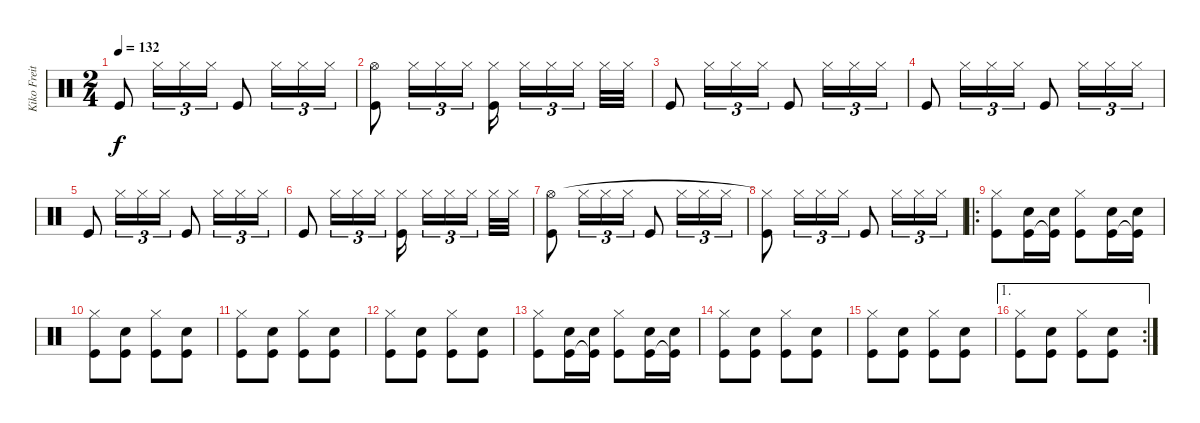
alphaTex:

\track ("Kiko Freitas" "Kiko Freit") {instrument percussion}
\staff {score}
\articulation defaults
\ts (2 4)
\tempo 132
\clef neutral
\ks c "Kick (hit)".8{dy f} "Hi-Hat (closed)".16{tu (3 2)} "Hi-Hat (closed)".16{tu (3 2)} "Hi-Hat (closed)".16{tu (3 2)} "Kick (hit)".8 "Hi-Hat (closed)".16{tu (3 2)} "Hi-Hat (closed)".16{tu (3 2)} "Hi-Hat (closed)".16{tu (3 2)}
|
("Kick (hit)" "Hi-Hat (open)").8 "Hi-Hat (closed)".16{tu (3 2)} "Hi-Hat (closed)".16{tu (3 2)} "Hi-Hat (closed)".16{tu (3 2)} ("Kick (hit)" "Hi-Hat (closed)").16 "Hi-Hat (closed)".16{tu (3 2)} "Hi-Hat (closed)".16{tu (3 2)} "Hi-Hat (closed)".16{tu (3 2)} "Hi-Hat (closed)".32 "Hi-Hat (closed)".32 |
"Kick (hit)".8 "Hi-Hat (closed)".16{tu (3 2)} "Hi-Hat (closed)".16{tu (3 2)} "Hi-Hat (closed)".16{tu (3 2)} "Kick (hit)".8 "Hi-Hat (closed)".16{tu (3 2)} "Hi-Hat (closed)".16{tu (3 2)} "Hi-Hat (closed)".16{tu (3 2)} |
"Kick (hit)".8 "Hi-Hat (closed)".16{tu (3 2)} "Hi-Hat (closed)".16{tu (3 2)} "Hi-Hat (closed)".16{tu (3 2)} "Kick (hit)".8 "Hi-Hat (closed)".16{tu (3 2)} "Hi-Hat (closed)".16{tu (3 2)} "Hi-Hat (closed)".16{tu (3 2)} |
"Kick (hit)".8 "Hi-Hat (closed)".16{tu (3 2)} "Hi-Hat (closed)".16{tu (3 2)} "Hi-Hat (closed)".16{tu (3 2)} "Kick (hit)".8 "Hi-Hat (closed)".16{tu (3 2)} "Hi-Hat (closed)".16{tu (3 2)} "Hi-Hat (closed)".16{tu (3 2)} |
"Kick (hit)".8 "Hi-Hat (closed)".16{tu (3 2)} "Hi-Hat (closed)".16{tu (3 2)} "Hi-Hat (closed)".16{tu (3 2)} ("Kick (hit)" "Hi-Hat (closed)").16 "Hi-Hat (closed)".16{tu (3 2)} "Hi-Hat (closed)".16{tu (3 2)} "Hi-Hat (closed)".16{tu (3 2)} "Hi-Hat (closed)".32 "Hi-Hat (closed)".32 |
("Kick (hit)" "Hi-Hat (open)").8 "Hi-Hat (closed)".16{tu (3 2)} "Hi-Hat (closed)".16{tu (3 2)} "Hi-Hat (closed)".16{tu (3 2)} "Kick (hit)".8 "Hi-Hat (closed)".16{tu (3 2)} "Hi-Hat (closed)".16{tu (3 2)} "Hi-Hat (closed)".16{tu (3 2)} |
("Kick (hit)" "Hi-Hat (closed)"{t}).8 "Hi-Hat (closed)".16{tu (3 2)} "Hi-Hat (closed)".16{tu (3 2)} "Hi-Hat (closed)".16{tu (3 2)} "Kick (hit)".8 "Hi-Hat (closed)".16{tu (3 2)} "Hi-Hat (closed)".16{tu (3 2)} "Hi-Hat (closed)".16{tu (3 2)} |
\ro
("Kick (hit)" "Hi-Hat (closed)").8 ("Kick (hit)" "Electric Snare (hit)").16 ("Kick (hit)"{t} "Electric Snare (hit)").16 ("Kick (hit)" "Hi-Hat (closed)").8 ("Kick (hit)" "Electric Snare (hit)").16 ("Kick (hit)"{t} "Electric Snare (hit)").16 |
("Kick (hit)" "Hi-Hat (closed)").8 ("Kick (hit)" "Electric Snare (hit)").8 ("Kick (hit)" "Hi-Hat (closed)").8 ("Kick (hit)" "Electric Snare (hit)").8 |
("Kick (hit)" "Hi-Hat (closed)").8 ("Kick (hit)" "Electric Snare (hit)").8 ("Kick (hit)" "Hi-Hat (closed)").8 ("Kick (hit)" "Electric Snare (hit)").8 |
("Kick (hit)" "Hi-Hat (closed)").8 ("Kick (hit)" "Electric Snare (hit)").8 ("Kick (hit)" "Hi-Hat (closed)").8 ("Kick (hit)" "Electric Snare (hit)").8 |
("Kick (hit)" "Hi-Hat (closed)").8 ("Kick (hit)" "Electric Snare (hit)").16 ("Kick (hit)"{t} "Electric Snare (hit)").16 ("Kick (hit)" "Hi-Hat (closed)").8 ("Kick (hit)" "Electric Snare (hit)").16 ("Kick (hit)"{t} "Electric Snare (hit)").16 |
("Kick (hit)" "Hi-Hat (closed)").8 ("Kick (hit)" "Electric Snare (hit)").8 ("Kick (hit)" "Hi-Hat (closed)").8 ("Kick (hit)" "Electric Snare (hit)").8 |
("Kick (hit)" "Hi-Hat (closed)").8 ("Kick (hit)" "Electric Snare (hit)").8 ("Kick (hit)" "Hi-Hat (closed)").8 ("Kick (hit)" "Electric Snare (hit)").8 |
\ae 1
\rc 2
("Kick (hit)" "Hi-Hat (closed)").8 ("Kick (hit)" "Electric Snare (hit)").8 ("Kick (hit)" "Hi-Hat (closed)").8 ("Kick (hit)" "Electric Snare (hit)").8
